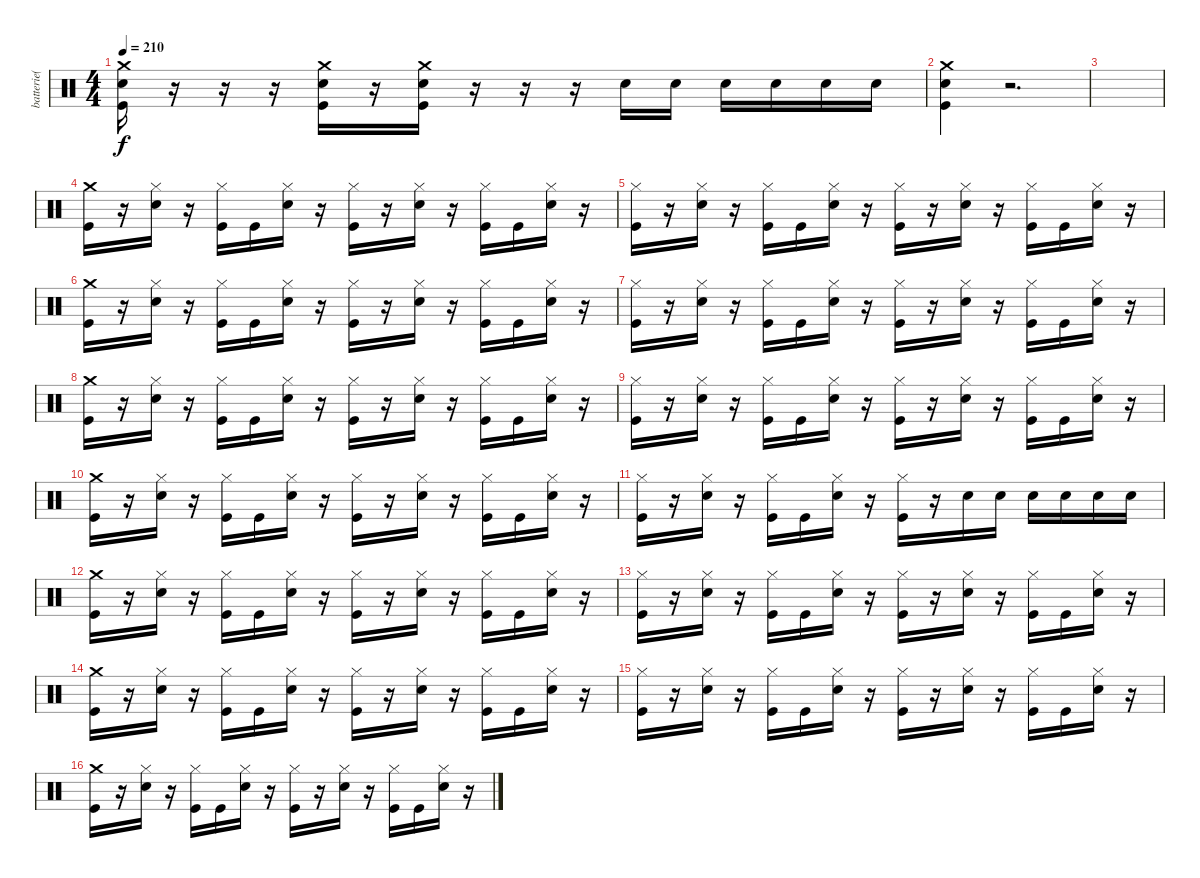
\track ("batterie( Jimmy ) " "batterie( ") {instrument percussion}
\staff {score}
\articulation defaults
\ts (4 4)
\tempo 210
\clef neutral
\ks c
("Crash medium (hit)" "Snare (hit) 2" "Kick (hit)").16{dy f} r.16 r.16 r.16 ("Crash medium (hit)" "Snare (hit) 2" "Kick (hit)").16 r.16 ("Crash medium (hit)" "Snare (hit) 2" "Kick (hit)").16 r.16 r.16 r.16 "Snare (hit) 2".16 "Snare (hit) 2".16 "Snare (hit) 2".16 "Snare (hit) 2".16 "Snare (hit) 2".16 "Snare (hit) 2".16 |
("Crash medium (hit)" "Snare (hit) 2" "Kick (hit)").4 r.2{d} |
|
("Crash medium (hit)" "Kick (hit)").16 r.16 ("Hi-Hat (closed)" "Snare (hit) 2").16 r.16 ("Hi-Hat (closed)" "Kick (hit)").16 "Kick (hit)".16 ("Hi-Hat (closed)" "Snare (hit) 2").16 r.16 ("Hi-Hat (closed)" "Kick (hit)").16 r.16 ("Hi-Hat (closed)" "Snare (hit) 2").16 r.16 ("Hi-Hat (closed)" "Kick (hit)").16 "Kick (hit)".16 ("Hi-Hat (closed)" "Snare (hit) 2").16 r.16 |
("Hi-Hat (closed)" "Kick (hit)").16 r.16 ("Hi-Hat (closed)" "Snare (hit) 2").16 r.16 ("Hi-Hat (closed)" "Kick (hit)").16 "Kick (hit)".16 ("Hi-Hat (closed)" "Snare (hit) 2").16 r.16 ("Hi-Hat (closed)" "Kick (hit)").16 r.16 ("Hi-Hat (closed)" "Snare (hit) 2").16 r.16 ("Hi-Hat (closed)" "Kick (hit)").16 "Kick (hit)".16 ("Hi-Hat (closed)" "Snare (hit) 2").16 r.16 |
("Crash medium (hit)" "Kick (hit)").16 r.16 ("Hi-Hat (closed)" "Snare (hit) 2").16 r.16 ("Hi-Hat (closed)" "Kick (hit)").16 "Kick (hit)".16 ("Hi-Hat (closed)" "Snare (hit) 2").16 r.16 ("Hi-Hat (closed)" "Kick (hit)").16 r.16 ("Hi-Hat (closed)" "Snare (hit) 2").16 r.16 ("Hi-Hat (closed)" "Kick (hit)").16 "Kick (hit)".16 ("Hi-Hat (closed)" "Snare (hit) 2").16 r.16 |
("Hi-Hat (closed)" "Kick (hit)").16 r.16 ("Hi-Hat (closed)" "Snare (hit) 2").16 r.16 ("Hi-Hat (closed)" "Kick (hit)").16 "Kick (hit)".16 ("Hi-Hat (closed)" "Snare (hit) 2").16 r.16 ("Hi-Hat (closed)" "Kick (hit)").16 r.16 ("Hi-Hat (closed)" "Snare (hit) 2").16 r.16 ("Hi-Hat (closed)" "Kick (hit)").16 "Kick (hit)".16 ("Hi-Hat (closed)" "Snare (hit) 2").16 r.16 |
("Crash medium (hit)" "Kick (hit)").16 r.16 ("Hi-Hat (closed)" "Snare (hit) 2").16 r.16 ("Hi-Hat (closed)" "Kick (hit)").16 "Kick (hit)".16 ("Hi-Hat (closed)" "Snare (hit) 2").16 r.16 ("Hi-Hat (closed)" "Kick (hit)").16 r.16 ("Hi-Hat (closed)" "Snare (hit) 2").16 r.16 ("Hi-Hat (closed)" "Kick (hit)").16 "Kick (hit)".16 ("Hi-Hat (closed)" "Snare (hit) 2").16 r.16 |
("Hi-Hat (closed)" "Kick (hit)").16 r.16 ("Hi-Hat (closed)" "Snare (hit) 2").16 r.16 ("Hi-Hat (closed)" "Kick (hit)").16 "Kick (hit)".16 ("Hi-Hat (closed)" "Snare (hit) 2").16 r.16 ("Hi-Hat (closed)" "Kick (hit)").16 r.16 ("Hi-Hat (closed)" "Snare (hit) 2").16 r.16 ("Hi-Hat (closed)" "Kick (hit)").16 "Kick (hit)".16 ("Hi-Hat (closed)" "Snare (hit) 2").16 r.16 |
("Crash medium (hit)" "Kick (hit)").16 r.16 ("Hi-Hat (closed)" "Snare (hit) 2").16 r.16 ("Hi-Hat (closed)" "Kick (hit)").16 "Kick (hit)".16 ("Hi-Hat (closed)" "Snare (hit) 2").16 r.16 ("Hi-Hat (closed)" "Kick (hit)").16 r.16 ("Hi-Hat (closed)" "Snare (hit) 2").16 r.16 ("Hi-Hat (closed)" "Kick (hit)").16 "Kick (hit)".16 ("Hi-Hat (closed)" "Snare (hit) 2").16 r.16 |
("Hi-Hat (closed)" "Kick (hit)").16 r.16 ("Hi-Hat (closed)" "Snare (hit) 2").16 r.16 ("Hi-Hat (closed)" "Kick (hit)").16 "Kick (hit)".16 ("Hi-Hat (closed)" "Snare (hit) 2").16 r.16 ("Hi-Hat (closed)" "Kick (hit)").16 r.16 "Snare (hit) 2".16 "Snare (hit) 2".16 "Snare (hit) 2".16 "Snare (hit) 2".16 "Snare (hit) 2".16 "Snare (hit) 2".16 |
("Crash medium (hit)" "Kick (hit)").16 r.16 ("Hi-Hat (closed)" "Snare (hit) 2").16 r.16 ("Hi-Hat (closed)" "Kick (hit)").16 "Kick (hit)".16 ("Hi-Hat (closed)" "Snare (hit) 2").16 r.16 ("Hi-Hat (closed)" "Kick (hit)").16 r.16 ("Hi-Hat (closed)" "Snare (hit) 2").16 r.16 ("Hi-Hat (closed)" "Kick (hit)").16 "Kick (hit)".16 ("Hi-Hat (closed)" "Snare (hit) 2").16 r.16 |
("Hi-Hat (closed)" "Kick (hit)").16 r.16 ("Hi-Hat (closed)" "Snare (hit) 2").16 r.16 ("Hi-Hat (closed)" "Kick (hit)").16 "Kick (hit)".16 ("Hi-Hat (closed)" "Snare (hit) 2").16 r.16 ("Hi-Hat (closed)" "Kick (hit)").16 r.16 ("Hi-Hat (closed)" "Snare (hit) 2").16 r.16 ("Hi-Hat (closed)" "Kick (hit)").16 "Kick (hit)".16 ("Hi-Hat (closed)" "Snare (hit) 2").16 r.16 |
("Crash medium (hit)" "Kick (hit)").16 r.16 ("Hi-Hat (closed)" "Snare (hit) 2").16 r.16 ("Hi-Hat (closed)" "Kick (hit)").16 "Kick (hit)".16 ("Hi-Hat (closed)" "Snare (hit) 2").16 r.16 ("Hi-Hat (closed)" "Kick (hit)").16 r.16 ("Hi-Hat (closed)" "Snare (hit) 2").16 r.16 ("Hi-Hat (closed)" "Kick (hit)").16 "Kick (hit)".16 ("Hi-Hat (closed)" "Snare (hit) 2").16 r.16 |
("Hi-Hat (closed)" "Kick (hit)").16 r.16 ("Hi-Hat (closed)" "Snare (hit) 2").16 r.16 ("Hi-Hat (closed)" "Kick (hit)").16 "Kick (hit)".16 ("Hi-Hat (closed)" "Snare (hit) 2").16 r.16 ("Hi-Hat (closed)" "Kick (hit)").16 r.16 ("Hi-Hat (closed)" "Snare (hit) 2").16 r.16 ("Hi-Hat (closed)" "Kick (hit)").16 "Kick (hit)".16 ("Hi-Hat (closed)" "Snare (hit) 2").16 r.16 |
("Crash medium (hit)" "Kick (hit)").16 r.16 ("Hi-Hat (closed)" "Snare (hit) 2").16 r.16 ("Hi-Hat (closed)" "Kick (hit)").16 "Kick (hit)".16 ("Hi-Hat (closed)" "Snare (hit) 2").16 r.16 ("Hi-Hat (closed)" "Kick (hit)").16 r.16 ("Hi-Hat (closed)" "Snare (hit) 2").16 r.16 ("Hi-Hat (closed)" "Kick (hit)").16 "Kick (hit)".16 ("Hi-Hat (closed)" "Snare (hit) 2").16 r.16
